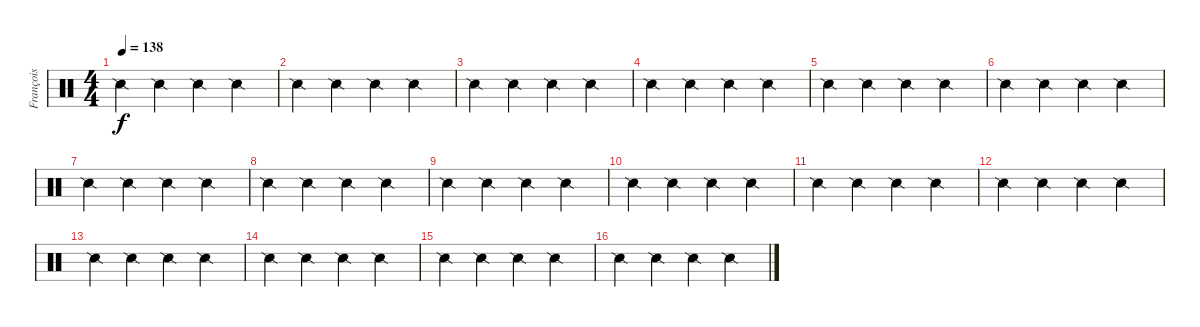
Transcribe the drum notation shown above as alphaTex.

\track ("François" "François") {instrument percussion}
\staff {score}
\articulation defaults
\ts (4 4)
\tempo 138
\clef neutral
\ks c "Snare (side stick) 2".4{dy f} "Snare (side stick) 2".4 "Snare (side stick) 2".4 "Snare (side stick) 2".4
|
"Snare (side stick) 2".4 "Snare (side stick) 2".4 "Snare (side stick) 2".4 "Snare (side stick) 2".4 |
"Snare (side stick) 2".4 "Snare (side stick) 2".4 "Snare (side stick) 2".4 "Snare (side stick) 2".4 |
"Snare (side stick) 2".4 "Snare (side stick) 2".4 "Snare (side stick) 2".4 "Snare (side stick) 2".4 |
"Snare (side stick) 2".4 "Snare (side stick) 2".4 "Snare (side stick) 2".4 "Snare (side stick) 2".4 |
"Snare (side stick) 2".4 "Snare (side stick) 2".4 "Snare (side stick) 2".4 "Snare (side stick) 2".4 |
"Snare (side stick) 2".4 "Snare (side stick) 2".4 "Snare (side stick) 2".4 "Snare (side stick) 2".4 |
"Snare (side stick) 2".4 "Snare (side stick) 2".4 "Snare (side stick) 2".4 "Snare (side stick) 2".4 |
"Snare (side stick) 2".4 "Snare (side stick) 2".4 "Snare (side stick) 2".4 "Snare (side stick) 2".4 |
"Snare (side stick) 2".4 "Snare (side stick) 2".4 "Snare (side stick) 2".4 "Snare (side stick) 2".4 |
"Snare (side stick) 2".4 "Snare (side stick) 2".4 "Snare (side stick) 2".4 "Snare (side stick) 2".4 |
"Snare (side stick) 2".4 "Snare (side stick) 2".4 "Snare (side stick) 2".4 "Snare (side stick) 2".4 |
"Snare (side stick) 2".4 "Snare (side stick) 2".4 "Snare (side stick) 2".4 "Snare (side stick) 2".4 |
"Snare (side stick) 2".4 "Snare (side stick) 2".4 "Snare (side stick) 2".4 "Snare (side stick) 2".4 |
"Snare (side stick) 2".4 "Snare (side stick) 2".4 "Snare (side stick) 2".4 "Snare (side stick) 2".4 |
"Snare (side stick) 2".4 "Snare (side stick) 2".4 "Snare (side stick) 2".4 "Snare (side stick) 2".4
